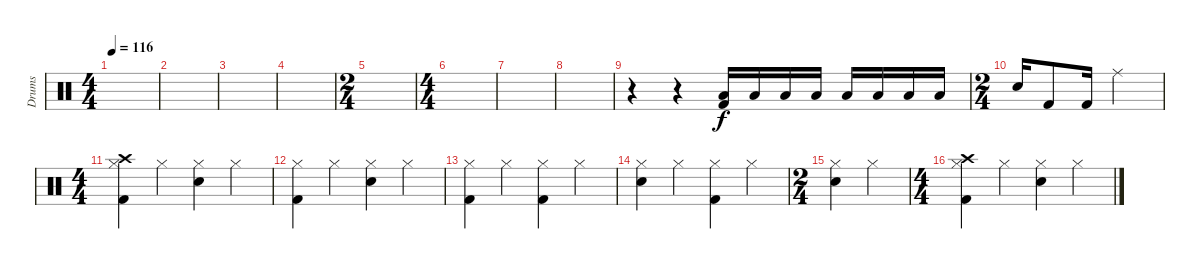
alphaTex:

\track ("Drums" "Drums") {instrument percussion}
\staff {score}
\articulation defaults
\ts (4 4)
\tempo 116
\clef neutral
\ks c
|
|
|
|
\ts (2 4)
|
\ts (4 4)
|
|
|
r.4 r.4 ("Low Tom (hit)" "Kick (hit) 2").16 "Low Tom (hit)".16 "Low Tom (hit)".16 "Low Tom (hit)".16 "Low Tom (hit)".16 "Low Tom (hit)".16 "Low Tom (hit)".16 "Low Tom (hit)".16 |
\ts (2 4)
"Electric Snare (hit)".16 "Kick (hit) 2".8 "Kick (hit) 2".16 "Ride (middle)".4 |
\ts (4 4)
("Crash high (hit)" "Hi-Hat (closed)" "Kick (hit) 2").4 "Hi-Hat (closed)".4 ("Hi-Hat (closed)" "Snare (hit) 2").4 "Hi-Hat (closed)".4 |
("Hi-Hat (closed)" "Kick (hit) 2").4 "Hi-Hat (closed)".4 ("Hi-Hat (closed)" "Snare (hit) 2").4 "Hi-Hat (closed)".4 |
("Hi-Hat (closed)" "Kick (hit) 2").4 "Hi-Hat (closed)".4 ("Hi-Hat (closed)" "Kick (hit) 2").4 "Hi-Hat (closed)".4 |
("Hi-Hat (closed)" "Snare (hit) 2").4 "Hi-Hat (closed)".4 ("Hi-Hat (closed)" "Kick (hit) 2").4 "Hi-Hat (closed)".4 |
\ts (2 4)
("Hi-Hat (closed)" "Snare (hit) 2").4 "Hi-Hat (closed)".4 |
\ts (4 4)
("Crash high (hit)" "Hi-Hat (closed)" "Kick (hit) 2").4 "Hi-Hat (closed)".4 ("Hi-Hat (closed)" "Snare (hit) 2").4 "Hi-Hat (closed)".4
